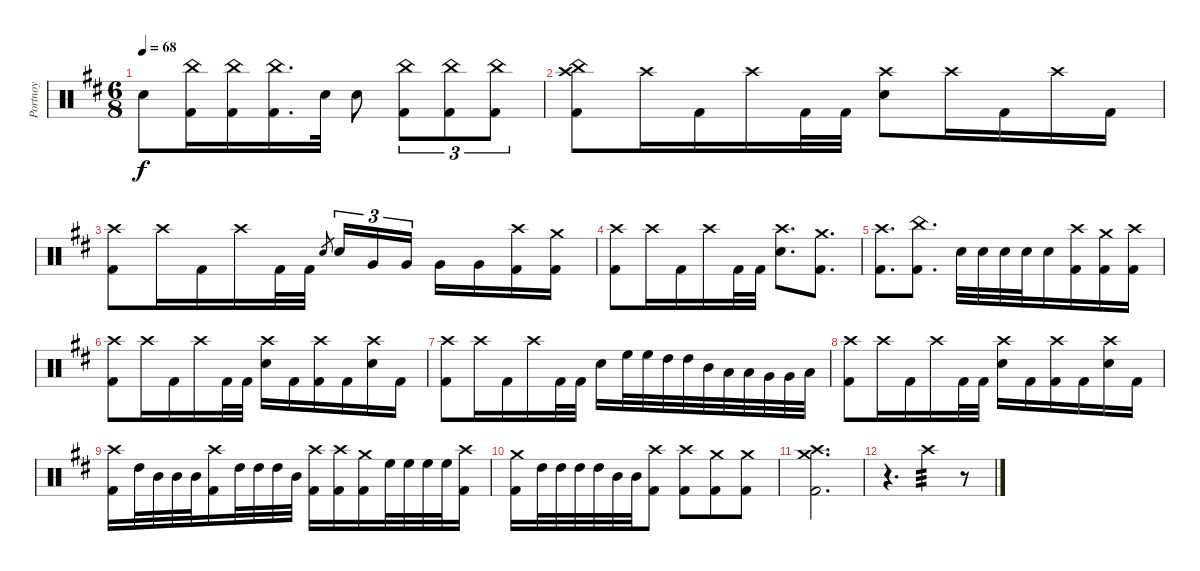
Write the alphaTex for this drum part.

\track ("Portnoy" "Portnoy") {instrument percussion}
\staff {score}
\articulation defaults
\ts (6 8)
\tempo 68
\clef neutral
\ks d "Snare (hit) 2".8{dy f}
("China (hit)" "Kick (hit) 2").16 ("Kick (hit) 2" "China (hit)").16 ("Kick (hit) 2" "China (hit)").16{d} "Snare (hit) 2".32 "Snare (hit) 2".8 ("China (hit)" "Kick (hit) 2").8{tu (3 2)} ("China (hit)" "Kick (hit) 2").8{tu (3 2)} ("China (hit)" "Kick (hit) 2").8{tu (3 2)} |
("China (hit)" "Kick (hit) 2" "Crash high (hit)").8 "Crash high (hit)".16 "Kick (hit) 2".16 "Crash high (hit)".16 "Kick (hit) 2".32 "Kick (hit) 2".32 ("Crash high (hit)" "Snare (hit) 2").8 "Crash high (hit)".16 "Kick (hit) 2".16 "Crash high (hit)".16 "Kick (hit) 2".16 |
("Crash high (hit)" "Kick (hit) 2").8 "Crash high (hit)".16 "Kick (hit) 2".16 "Crash high (hit)".16 "Kick (hit) 2".32 "Kick (hit) 2".32 "Snare (hit) 2".8{gr} "Snare (hit) 2".16{tu (3 2)} "Very Low Tom (hit)".16{tu (3 2)} "Very Low Tom (hit)".16{tu (3 2) beam splitsecondary} "Very Low Tom (hit)".16 "Very Low Tom (hit)".16 ("Crash high (hit)" "Kick (hit) 2").16 ("Crash medium (hit)" "Kick (hit) 2").16 |
("Crash high (hit)" "Kick (hit) 2").8 "Crash high (hit)".16 "Kick (hit) 2".16 "Crash high (hit)".16 "Kick (hit) 2".32 "Kick (hit) 2".32 ("Crash high (hit)" "Snare (hit) 2").8{d} ("Crash medium (hit)" "Kick (hit) 2").8{d} |
("Crash high (hit)" "Kick (hit) 2").8{d} ("Kick (hit) 2" "China (hit)").8{d} "Snare (hit) 2".32 "Snare (hit) 2".32 "Snare (hit) 2".32 "Snare (hit) 2".32 "Snare (hit) 2".16 ("Crash high (hit)" "Kick (hit) 2").16 ("Kick (hit) 2" "Crash medium (hit)").16 ("Kick (hit) 2" "Crash high (hit)").16 |
("Crash high (hit)" "Kick (hit) 2").8 "Crash high (hit)".16 "Kick (hit) 2".16 "Crash high (hit)".16 "Kick (hit) 2".32 "Kick (hit) 2".32 ("Crash high (hit)" "Snare (hit) 2").16 "Kick (hit) 2".16 ("Kick (hit) 2" "Crash high (hit)").16 "Kick (hit) 2".16 ("Crash high (hit)" "Snare (hit) 2").16 "Kick (hit) 2".16 |
("Crash high (hit)" "Kick (hit) 2").8 "Crash high (hit)".16 "Kick (hit) 2".16 "Crash high (hit)".16 "Kick (hit) 2".32 "Kick (hit) 2".32 "Snare (hit) 2".16 "High Floor Tom (hit)".32 "High Floor Tom (hit)".32 "High Tom (hit)".32 "High Tom (hit)".32 "Mid Tom (hit)".32 "Low Tom (hit)".32 "Low Tom (hit)".32 "Very Low Tom (hit)".32 "Very Low Tom (hit)".32 "Low Floor Tom (hit)".32 |
("Crash high (hit)" "Kick (hit) 2").8 "Crash high (hit)".16 "Kick (hit) 2".16 "Crash high (hit)".16 "Kick (hit) 2".32 "Kick (hit) 2".32 ("Crash high (hit)" "Snare (hit) 2").16 "Kick (hit) 2".16 ("Kick (hit) 2" "Crash high (hit)").16 "Kick (hit) 2".16 ("Crash high (hit)" "Snare (hit) 2").16 "Kick (hit) 2".16 |
("Crash high (hit)" "Kick (hit) 2").16 "High Tom (hit)".32 "Mid Tom (hit)".32 "Mid Tom (hit)".32 "Mid Tom (hit)".32 ("Crash high (hit)" "Kick (hit) 2").16 "High Tom (hit)".32 "High Tom (hit)".32 "High Tom (hit)".32 "Mid Tom (hit)".32 ("Crash high (hit)" "Kick (hit) 2").16 ("Crash high (hit)" "Kick (hit) 2").16 ("Crash medium (hit)" "Kick (hit) 2").16 "High Floor Tom (hit)".32 "High Floor Tom (hit)".32 "High Floor Tom (hit)".32 "High Floor Tom (hit)".32 ("Kick (hit) 2" "Crash high (hit)").16 |
("Crash medium (hit)" "Kick (hit) 2").16 "High Tom (hit)".32 "High Tom (hit)".32 "High Tom (hit)".32 "High Tom (hit)".32 "Mid Tom (hit)".32 "Mid Tom (hit)".32 ("Crash high (hit)" "Kick (hit) 2").8 ("Crash high (hit)" "Kick (hit) 2").8 ("Kick (hit) 2" "Crash medium (hit)").8 ("Kick (hit) 2" "Crash medium (hit)").8 |
("Crash high (hit)" "Kick (hit) 2" "Crash medium (hit)").2{d} |
r.4{d} "Crash high (hit)".4{tp 3} r.8
